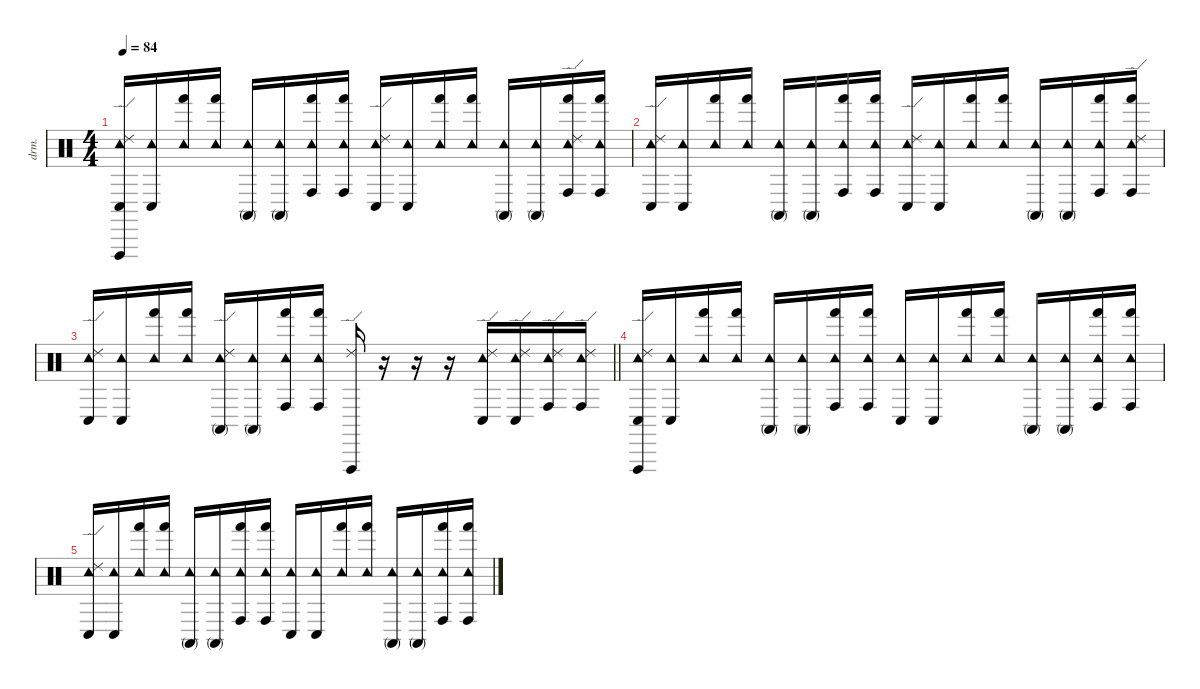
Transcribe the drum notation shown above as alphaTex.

\defaultSystemsLayout 4
\hideDynamics
\bracketExtendMode nobrackets
\otherSystemsTrackNameOrientation horizontal
\track ("Conga + Tambourine" "drm.") {instrument percussion}
\staff {score}
\articulation defaults
\ts (4 4)
\tempo 84
\clef neutral
\ks c
("Conga low (hit)" "Vibraslap (hit)" "Tambourine (hit)" "Ride (edge) 2").16{dy f beam Up} ("Conga low (hit)" "Tambourine (hit)").16{beam Up} ("Hand (hit)" "Tambourine (hit)").16{beam Up} ("Hand (hit)" "Tambourine (hit)").16{beam Up} ("Conga high (mute)" "Tambourine (hit)").16{beam Up} ("Conga high (mute)" "Tambourine (hit)").16{beam Up} ("Conga high (hit)" "Hand (hit)" "Tambourine (hit)").16{beam Up} ("Conga high (hit)" "Hand (hit)" "Tambourine (hit)").16{beam Up} ("Conga low (hit)" "Tambourine (hit)" "Ride (edge) 2").16{beam Up} ("Conga low (hit)" "Tambourine (hit)").16{beam Up} ("Hand (hit)" "Tambourine (hit)").16{beam Up} ("Hand (hit)" "Tambourine (hit)").16{beam Up} ("Conga high (mute)" "Tambourine (hit)").16{beam Up} ("Conga high (mute)" "Tambourine (hit)").16{beam Up} ("Conga high (hit)" "Hand (hit)" "Tambourine (hit)" "Ride (edge) 2").16{beam Up} ("Conga high (hit)" "Hand (hit)" "Tambourine (hit)").16{beam Up} |
("Conga low (hit)" "Tambourine (hit)" "Ride (edge) 2").16{beam Up} ("Conga low (hit)" "Tambourine (hit)").16{beam Up} ("Hand (hit)" "Tambourine (hit)").16{beam Up} ("Hand (hit)" "Tambourine (hit)").16{beam Up} ("Conga high (mute)" "Tambourine (hit)").16{beam Up} ("Conga high (mute)" "Tambourine (hit)").16{beam Up} ("Conga high (hit)" "Hand (hit)" "Tambourine (hit)").16{beam Up} ("Conga high (hit)" "Hand (hit)" "Tambourine (hit)").16{beam Up} ("Conga low (hit)" "Tambourine (hit)" "Ride (edge) 2").16{beam Up} ("Conga low (hit)" "Tambourine (hit)").16{beam Up} ("Hand (hit)" "Tambourine (hit)").16{beam Up} ("Hand (hit)" "Tambourine (hit)").16{beam Up} ("Conga high (mute)" "Tambourine (hit)").16{beam Up} ("Conga high (mute)" "Tambourine (hit)").16{beam Up} ("Conga high (hit)" "Hand (hit)" "Tambourine (hit)").16{beam Up} ("Conga high (hit)" "Hand (hit)" "Tambourine (hit)" "Ride (edge) 2").16{beam Up} |
\barLineRight lightlight
("Conga low (hit)" "Tambourine (hit)" "Ride (edge) 2").16{beam Up} ("Conga low (hit)" "Tambourine (hit)").16{beam Up} ("Hand (hit)" "Tambourine (hit)").16{beam Up} ("Hand (hit)" "Tambourine (hit)").16{beam Up} ("Conga high (mute)" "Tambourine (hit)" "Ride (edge) 2").16{beam Up} ("Conga high (mute)" "Tambourine (hit)").16{beam Up} ("Conga high (hit)" "Hand (hit)" "Tambourine (hit)").16{beam Up} ("Conga high (hit)" "Hand (hit)" "Tambourine (hit)").16{beam Up} ("Vibraslap (hit)" "Ride (edge) 2").16{beam Up} r.16{beam Up} r.16{beam Up} r.16{beam Up} ("Conga low (hit)" "Tambourine (hit)" "Ride (edge) 2").16{beam Up} ("Conga low (hit)" "Tambourine (hit)" "Ride (edge) 2").16{beam Up} ("Conga high (hit)" "Tambourine (hit)" "Ride (edge) 2").16{beam Up} ("Conga high (hit)" "Tambourine (hit)" "Ride (edge) 2").16{beam Up} |
("Conga low (hit)" "Vibraslap (hit)" "Tambourine (hit)" "Ride (edge) 2").16{beam Up} ("Conga low (hit)" "Tambourine (hit)").16{beam Up} ("Hand (hit)" "Tambourine (hit)").16{beam Up} ("Hand (hit)" "Tambourine (hit)").16{beam Up} ("Conga high (mute)" "Tambourine (hit)").16{beam Up} ("Conga high (mute)" "Tambourine (hit)").16{beam Up} ("Conga high (hit)" "Hand (hit)" "Tambourine (hit)").16{beam Up} ("Conga high (hit)" "Hand (hit)" "Tambourine (hit)").16{beam Up} ("Conga low (hit)" "Tambourine (hit)").16{beam Up} ("Conga low (hit)" "Tambourine (hit)").16{beam Up} ("Hand (hit)" "Tambourine (hit)").16{beam Up} ("Hand (hit)" "Tambourine (hit)").16{beam Up} ("Conga high (mute)" "Tambourine (hit)").16{beam Up} ("Conga high (mute)" "Tambourine (hit)").16{beam Up} ("Conga high (hit)" "Hand (hit)" "Tambourine (hit)").16{beam Up} ("Conga high (hit)" "Hand (hit)" "Tambourine (hit)").16{beam Up} |
("Conga low (hit)" "Tambourine (hit)" "Ride (edge) 2").16{beam Up} ("Conga low (hit)" "Tambourine (hit)").16{beam Up} ("Hand (hit)" "Tambourine (hit)").16{beam Up} ("Hand (hit)" "Tambourine (hit)").16{beam Up} ("Conga high (mute)" "Tambourine (hit)").16{beam Up} ("Conga high (mute)" "Tambourine (hit)").16{beam Up} ("Conga high (hit)" "Hand (hit)" "Tambourine (hit)").16{beam Up} ("Conga high (hit)" "Hand (hit)" "Tambourine (hit)").16{beam Up} ("Conga low (hit)" "Tambourine (hit)").16{beam Up} ("Conga low (hit)" "Tambourine (hit)").16{beam Up} ("Hand (hit)" "Tambourine (hit)").16{beam Up} ("Hand (hit)" "Tambourine (hit)").16{beam Up} ("Conga high (mute)" "Tambourine (hit)").16{beam Up} ("Conga high (mute)" "Tambourine (hit)").16{beam Up} ("Conga high (hit)" "Hand (hit)" "Tambourine (hit)").16{beam Up} ("Conga high (hit)" "Hand (hit)" "Tambourine (hit)").16{beam Up}
